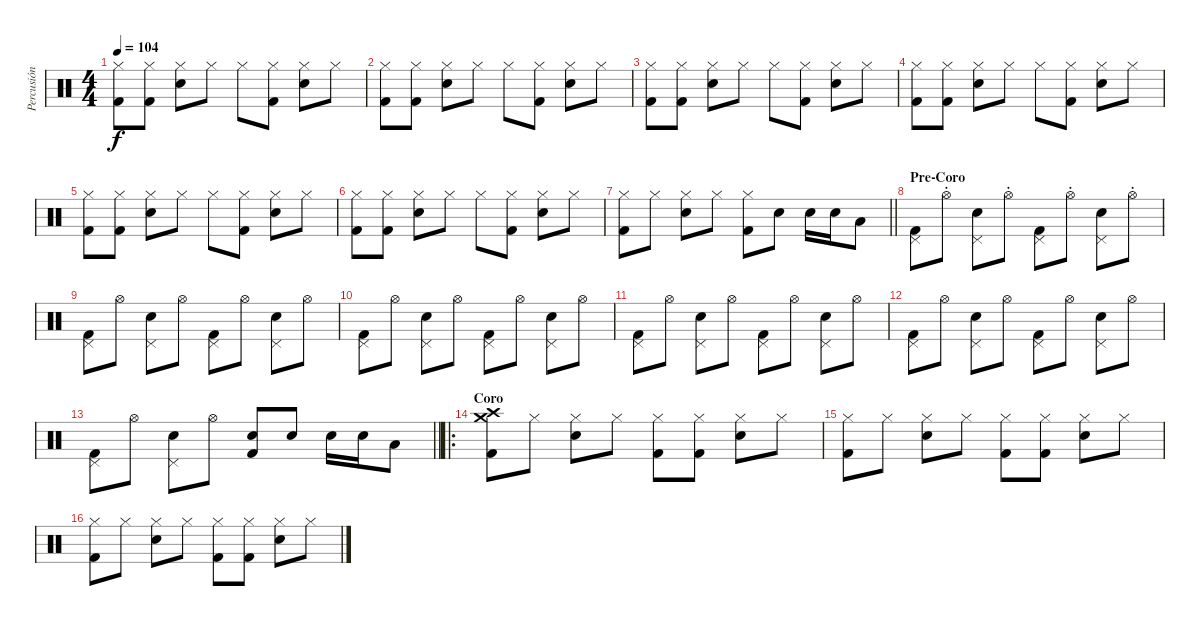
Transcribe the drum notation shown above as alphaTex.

\track ("Percusión" "Percusión") {instrument percussion}
\staff {score}
\articulation defaults
\ts (4 4)
\tempo 104
\clef neutral
\ks c
("Hi-Hat (closed)" "Kick (hit) 2").8{dy f} ("Hi-Hat (closed)" "Kick (hit) 2").8 ("Hi-Hat (closed)" "Snare (hit) 2").8 "Hi-Hat (closed)".8 "Hi-Hat (closed)".8 ("Hi-Hat (closed)" "Kick (hit) 2").8 ("Hi-Hat (closed)" "Snare (hit) 2").8 "Hi-Hat (closed)".8 |
("Hi-Hat (closed)" "Kick (hit) 2").8 ("Hi-Hat (closed)" "Kick (hit) 2").8 ("Hi-Hat (closed)" "Snare (hit) 2").8 "Hi-Hat (closed)".8 "Hi-Hat (closed)".8 ("Hi-Hat (closed)" "Kick (hit) 2").8 ("Hi-Hat (closed)" "Snare (hit) 2").8 "Hi-Hat (closed)".8 |
("Hi-Hat (closed)" "Kick (hit) 2").8 ("Hi-Hat (closed)" "Kick (hit) 2").8 ("Hi-Hat (closed)" "Snare (hit) 2").8 "Hi-Hat (closed)".8 "Hi-Hat (closed)".8 ("Hi-Hat (closed)" "Kick (hit) 2").8 ("Hi-Hat (closed)" "Snare (hit) 2").8 "Hi-Hat (closed)".8 |
("Hi-Hat (closed)" "Kick (hit) 2").8 ("Hi-Hat (closed)" "Kick (hit) 2").8 ("Hi-Hat (closed)" "Snare (hit) 2").8 "Hi-Hat (closed)".8 "Hi-Hat (closed)".8 ("Hi-Hat (closed)" "Kick (hit) 2").8 ("Hi-Hat (closed)" "Snare (hit) 2").8 "Hi-Hat (closed)".8 |
("Hi-Hat (closed)" "Kick (hit) 2").8 ("Hi-Hat (closed)" "Kick (hit) 2").8 ("Hi-Hat (closed)" "Snare (hit) 2").8 "Hi-Hat (closed)".8 "Hi-Hat (closed)".8 ("Hi-Hat (closed)" "Kick (hit) 2").8 ("Hi-Hat (closed)" "Snare (hit) 2").8 "Hi-Hat (closed)".8 |
("Hi-Hat (closed)" "Kick (hit) 2").8 ("Hi-Hat (closed)" "Kick (hit) 2").8 ("Hi-Hat (closed)" "Snare (hit) 2").8 "Hi-Hat (closed)".8 "Hi-Hat (closed)".8 ("Hi-Hat (closed)" "Kick (hit) 2").8 ("Hi-Hat (closed)" "Snare (hit) 2").8 "Hi-Hat (closed)".8 |
\barLineRight lightlight
("Hi-Hat (closed)" "Kick (hit) 2").8 "Hi-Hat (closed)".8 ("Hi-Hat (closed)" "Snare (hit) 2").8 "Hi-Hat (closed)".8 ("Hi-Hat (closed)" "Kick (hit) 2").8 "Snare (hit) 2".8 "Snare (hit) 2".16 "Snare (hit) 2".16 "Low Tom (hit)".8 |
\section ("" "Pre-Coro")
("Pedal Hi-Hat (hit)" "Kick (hit) 2").8 "Hi-Hat (open)"{st}.8 ("Pedal Hi-Hat (hit)" "Snare (hit) 2").8 "Hi-Hat (open)"{st}.8 ("Pedal Hi-Hat (hit)" "Kick (hit) 2").8 "Hi-Hat (open)"{st}.8 ("Pedal Hi-Hat (hit)" "Snare (hit) 2").8 "Hi-Hat (open)"{st}.8 |
("Pedal Hi-Hat (hit)" "Kick (hit) 2").8 "Hi-Hat (open)".8 ("Pedal Hi-Hat (hit)" "Snare (hit) 2").8 "Hi-Hat (open)".8 ("Pedal Hi-Hat (hit)" "Kick (hit) 2").8 "Hi-Hat (open)".8 ("Pedal Hi-Hat (hit)" "Snare (hit) 2").8 "Hi-Hat (open)".8 |
("Pedal Hi-Hat (hit)" "Kick (hit) 2").8 "Hi-Hat (open)".8 ("Pedal Hi-Hat (hit)" "Snare (hit) 2").8 "Hi-Hat (open)".8 ("Pedal Hi-Hat (hit)" "Kick (hit) 2").8 "Hi-Hat (open)".8 ("Pedal Hi-Hat (hit)" "Snare (hit) 2").8 "Hi-Hat (open)".8 |
("Pedal Hi-Hat (hit)" "Kick (hit) 2").8 "Hi-Hat (open)".8 ("Pedal Hi-Hat (hit)" "Snare (hit) 2").8 "Hi-Hat (open)".8 ("Pedal Hi-Hat (hit)" "Kick (hit) 2").8 "Hi-Hat (open)".8 ("Pedal Hi-Hat (hit)" "Snare (hit) 2").8 "Hi-Hat (open)".8 |
("Pedal Hi-Hat (hit)" "Kick (hit) 2").8 "Hi-Hat (open)".8 ("Pedal Hi-Hat (hit)" "Snare (hit) 2").8 "Hi-Hat (open)".8 ("Pedal Hi-Hat (hit)" "Kick (hit) 2").8 "Hi-Hat (open)".8 ("Pedal Hi-Hat (hit)" "Snare (hit) 2").8 "Hi-Hat (open)".8 |
\barLineRight lightlight
("Pedal Hi-Hat (hit)" "Kick (hit) 2").8 "Hi-Hat (open)".8 ("Pedal Hi-Hat (hit)" "Snare (hit) 2").8 "Hi-Hat (open)".8 ("Snare (hit) 2" "Kick (hit) 2").8 "Snare (hit) 2".8 "Snare (hit) 2".16 "Snare (hit) 2".16 "Low Tom (hit)".8 |
\ro
\section ("" "Coro")
("Crash medium (hit)" "Crash high (hit)" "Kick (hit) 2").8 "Hi-Hat (closed)".8 ("Hi-Hat (closed)" "Snare (hit) 2").8 "Hi-Hat (closed)".8 ("Hi-Hat (closed)" "Kick (hit) 2").8 ("Hi-Hat (closed)" "Kick (hit) 2").8 ("Hi-Hat (closed)" "Snare (hit) 2").8 "Hi-Hat (closed)".8 |
("Hi-Hat (closed)" "Kick (hit) 2").8 "Hi-Hat (closed)".8 ("Hi-Hat (closed)" "Snare (hit) 2").8 "Hi-Hat (closed)".8 ("Hi-Hat (closed)" "Kick (hit) 2").8 ("Hi-Hat (closed)" "Kick (hit) 2").8 ("Hi-Hat (closed)" "Snare (hit) 2").8 "Hi-Hat (closed)".8 |
("Hi-Hat (closed)" "Kick (hit) 2").8 "Hi-Hat (closed)".8 ("Hi-Hat (closed)" "Snare (hit) 2").8 "Hi-Hat (closed)".8 ("Hi-Hat (closed)" "Kick (hit) 2").8 ("Hi-Hat (closed)" "Kick (hit) 2").8 ("Hi-Hat (closed)" "Snare (hit) 2").8 "Hi-Hat (closed)".8
